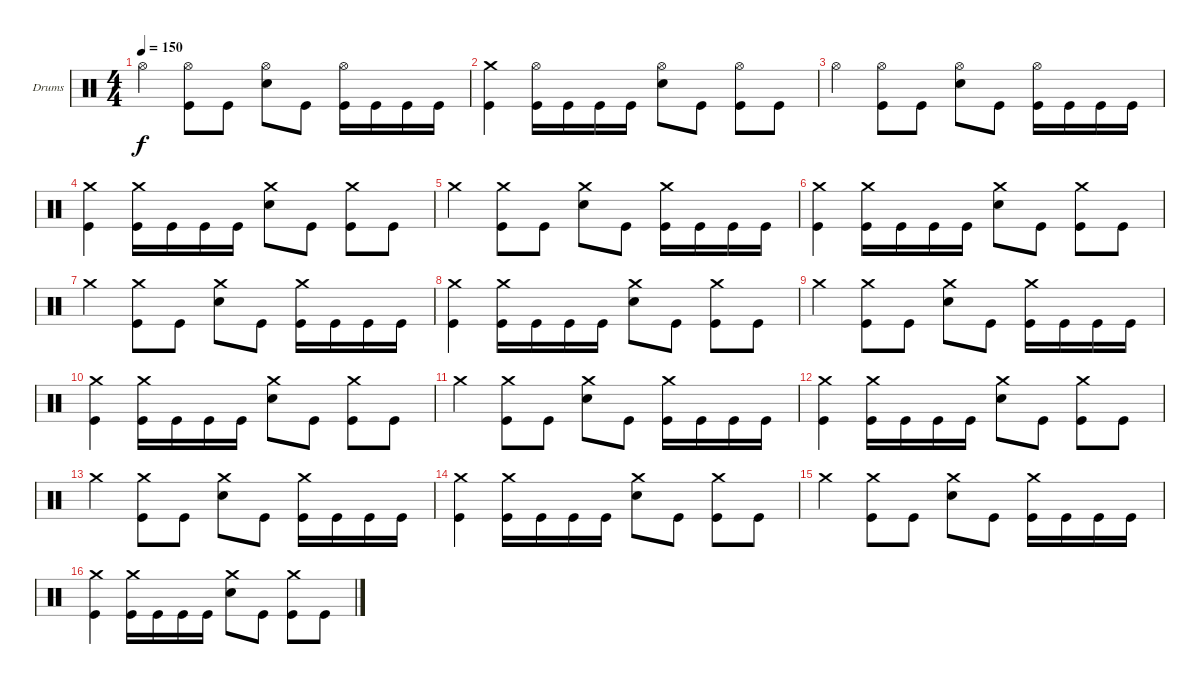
\defaultSystemsLayout 4
\bracketExtendMode groupsimilarinstruments
\firstSystemTrackNameOrientation horizontal
\otherSystemsTrackNameOrientation horizontal
\track ("Drumkit" "Drums") {instrument percussion}
\staff {score}
\articulation defaults
\ts (4 4)
\tempo 150
\clef neutral
\ks c "Hi-Hat (open)".4{dy f}
("Hi-Hat (open)" "Kick (hit)").8 "Kick (hit)".8 ("Snare (hit) 2" "Hi-Hat (open)").8 "Kick (hit)".8 ("Kick (hit)" "Hi-Hat (open)").16 "Kick (hit)".16 "Kick (hit)".16 "Kick (hit)".16 |
("Crash medium (hit)" "Kick (hit)").4 ("Kick (hit)" "Hi-Hat (open)").16 "Kick (hit)".16 "Kick (hit)".16 "Kick (hit)".16 ("Snare (hit) 2" "Hi-Hat (open)").8 "Kick (hit)".8 ("Kick (hit)" "Hi-Hat (open)").8 "Kick (hit)".8 |
"Hi-Hat (open)".4 ("Hi-Hat (open)" "Kick (hit)").8 "Kick (hit)".8 ("Snare (hit) 2" "Hi-Hat (open)").8 "Kick (hit)".8 ("Kick (hit)" "Hi-Hat (open)").16 "Kick (hit)".16 "Kick (hit)".16 "Kick (hit)".16 |
("Crash medium (hit)" "Kick (hit)").4 ("Kick (hit)" "Crash medium (hit)").16 "Kick (hit)".16 "Kick (hit)".16 "Kick (hit)".16 ("Crash medium (hit)" "Snare (hit) 2").8 "Kick (hit)".8 ("Kick (hit)" "Crash medium (hit)").8 "Kick (hit)".8 |
"Crash medium (hit)".4 ("Kick (hit)" "Crash medium (hit)").8 "Kick (hit)".8 ("Snare (hit) 2" "Crash medium (hit)").8 "Kick (hit)".8 ("Kick (hit)" "Crash medium (hit)").16 "Kick (hit)".16 "Kick (hit)".16 "Kick (hit)".16 |
("Crash medium (hit)" "Kick (hit)").4 ("Kick (hit)" "Crash medium (hit)").16 "Kick (hit)".16 "Kick (hit)".16 "Kick (hit)".16 ("Crash medium (hit)" "Snare (hit) 2").8 "Kick (hit)".8 ("Kick (hit)" "Crash medium (hit)").8 "Kick (hit)".8 |
"Crash medium (hit)".4 ("Kick (hit)" "Crash medium (hit)").8 "Kick (hit)".8 ("Snare (hit) 2" "Crash medium (hit)").8 "Kick (hit)".8 ("Kick (hit)" "Crash medium (hit)").16 "Kick (hit)".16 "Kick (hit)".16 "Kick (hit)".16 |
("Crash medium (hit)" "Kick (hit)").4 ("Kick (hit)" "Crash medium (hit)").16 "Kick (hit)".16 "Kick (hit)".16 "Kick (hit)".16 ("Crash medium (hit)" "Snare (hit) 2").8 "Kick (hit)".8 ("Kick (hit)" "Crash medium (hit)").8 "Kick (hit)".8 |
"Crash medium (hit)".4 ("Kick (hit)" "Crash medium (hit)").8 "Kick (hit)".8 ("Snare (hit) 2" "Crash medium (hit)").8 "Kick (hit)".8 ("Kick (hit)" "Crash medium (hit)").16 "Kick (hit)".16 "Kick (hit)".16 "Kick (hit)".16 |
("Crash medium (hit)" "Kick (hit)").4 ("Kick (hit)" "Crash medium (hit)").16 "Kick (hit)".16 "Kick (hit)".16 "Kick (hit)".16 ("Crash medium (hit)" "Snare (hit) 2").8 "Kick (hit)".8 ("Kick (hit)" "Crash medium (hit)").8 "Kick (hit)".8 |
"Crash medium (hit)".4 ("Kick (hit)" "Crash medium (hit)").8 "Kick (hit)".8 ("Snare (hit) 2" "Crash medium (hit)").8 "Kick (hit)".8 ("Kick (hit)" "Crash medium (hit)").16 "Kick (hit)".16 "Kick (hit)".16 "Kick (hit)".16 |
("Crash medium (hit)" "Kick (hit)").4 ("Kick (hit)" "Crash medium (hit)").16 "Kick (hit)".16 "Kick (hit)".16 "Kick (hit)".16 ("Crash medium (hit)" "Snare (hit) 2").8 "Kick (hit)".8 ("Kick (hit)" "Crash medium (hit)").8 "Kick (hit)".8 |
"Crash medium (hit)".4 ("Kick (hit)" "Crash medium (hit)").8 "Kick (hit)".8 ("Snare (hit) 2" "Crash medium (hit)").8 "Kick (hit)".8 ("Kick (hit)" "Crash medium (hit)").16 "Kick (hit)".16 "Kick (hit)".16 "Kick (hit)".16 |
("Crash medium (hit)" "Kick (hit)").4 ("Kick (hit)" "Crash medium (hit)").16 "Kick (hit)".16 "Kick (hit)".16 "Kick (hit)".16 ("Crash medium (hit)" "Snare (hit) 2").8 "Kick (hit)".8 ("Kick (hit)" "Crash medium (hit)").8 "Kick (hit)".8 |
"Crash medium (hit)".4 ("Kick (hit)" "Crash medium (hit)").8 "Kick (hit)".8 ("Snare (hit) 2" "Crash medium (hit)").8 "Kick (hit)".8 ("Kick (hit)" "Crash medium (hit)").16 "Kick (hit)".16 "Kick (hit)".16 "Kick (hit)".16 |
("Crash medium (hit)" "Kick (hit)").4 ("Kick (hit)" "Crash medium (hit)").16 "Kick (hit)".16 "Kick (hit)".16 "Kick (hit)".16 ("Crash medium (hit)" "Snare (hit) 2").8 "Kick (hit)".8 ("Kick (hit)" "Crash medium (hit)").8 "Kick (hit)".8
